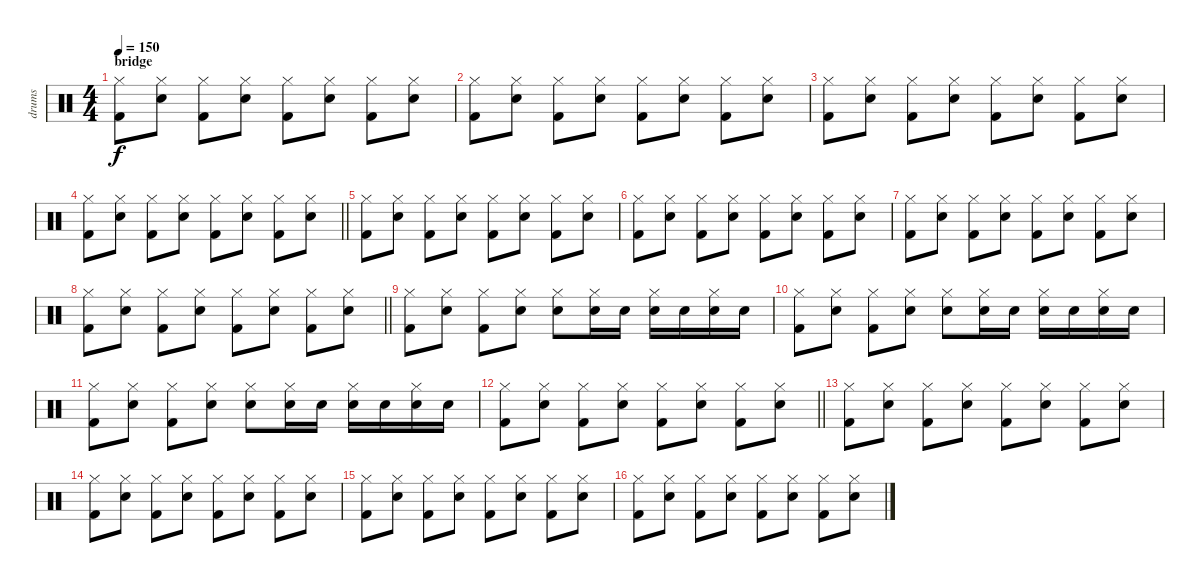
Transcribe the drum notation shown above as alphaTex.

\track ("drums" "drums") {instrument percussion}
\staff {score}
\articulation defaults
\ts (4 4)
\section ("" "bridge")
\tempo 150
\clef neutral
\ks c
("Hi-Hat (closed)" "Kick (hit) 2").8{dy f} ("Hi-Hat (closed)" "Snare (hit) 2").8 ("Hi-Hat (closed)" "Kick (hit) 2").8 ("Hi-Hat (closed)" "Snare (hit) 2").8 ("Hi-Hat (closed)" "Kick (hit) 2").8 ("Hi-Hat (closed)" "Snare (hit) 2").8 ("Hi-Hat (closed)" "Kick (hit) 2").8 ("Hi-Hat (closed)" "Snare (hit) 2").8 |
("Hi-Hat (closed)" "Kick (hit) 2").8 ("Hi-Hat (closed)" "Snare (hit) 2").8 ("Hi-Hat (closed)" "Kick (hit) 2").8 ("Hi-Hat (closed)" "Snare (hit) 2").8 ("Hi-Hat (closed)" "Kick (hit) 2").8 ("Hi-Hat (closed)" "Snare (hit) 2").8 ("Hi-Hat (closed)" "Kick (hit) 2").8 ("Hi-Hat (closed)" "Snare (hit) 2").8 |
("Hi-Hat (closed)" "Kick (hit) 2").8 ("Hi-Hat (closed)" "Snare (hit) 2").8 ("Hi-Hat (closed)" "Kick (hit) 2").8 ("Hi-Hat (closed)" "Snare (hit) 2").8 ("Hi-Hat (closed)" "Kick (hit) 2").8 ("Hi-Hat (closed)" "Snare (hit) 2").8 ("Hi-Hat (closed)" "Kick (hit) 2").8 ("Hi-Hat (closed)" "Snare (hit) 2").8 |
\barLineRight lightlight
("Hi-Hat (closed)" "Kick (hit) 2").8 ("Hi-Hat (closed)" "Snare (hit) 2").8 ("Hi-Hat (closed)" "Kick (hit) 2").8 ("Hi-Hat (closed)" "Snare (hit) 2").8 ("Hi-Hat (closed)" "Kick (hit) 2").8 ("Hi-Hat (closed)" "Snare (hit) 2").8 ("Hi-Hat (closed)" "Kick (hit) 2").8 ("Hi-Hat (closed)" "Snare (hit) 2").8 |
\section ("" "")
("Hi-Hat (closed)" "Kick (hit) 2").8 ("Hi-Hat (closed)" "Snare (hit) 2").8 ("Hi-Hat (closed)" "Kick (hit) 2").8 ("Hi-Hat (closed)" "Snare (hit) 2").8 ("Hi-Hat (closed)" "Kick (hit) 2").8 ("Hi-Hat (closed)" "Snare (hit) 2").8 ("Hi-Hat (closed)" "Kick (hit) 2").8 ("Hi-Hat (closed)" "Snare (hit) 2").8 |
("Hi-Hat (closed)" "Kick (hit) 2").8 ("Hi-Hat (closed)" "Snare (hit) 2").8 ("Hi-Hat (closed)" "Kick (hit) 2").8 ("Hi-Hat (closed)" "Snare (hit) 2").8 ("Hi-Hat (closed)" "Kick (hit) 2").8 ("Hi-Hat (closed)" "Snare (hit) 2").8 ("Hi-Hat (closed)" "Kick (hit) 2").8 ("Hi-Hat (closed)" "Snare (hit) 2").8 |
("Hi-Hat (closed)" "Kick (hit) 2").8 ("Hi-Hat (closed)" "Snare (hit) 2").8 ("Hi-Hat (closed)" "Kick (hit) 2").8 ("Hi-Hat (closed)" "Snare (hit) 2").8 ("Hi-Hat (closed)" "Kick (hit) 2").8 ("Hi-Hat (closed)" "Snare (hit) 2").8 ("Hi-Hat (closed)" "Kick (hit) 2").8 ("Hi-Hat (closed)" "Snare (hit) 2").8 |
\barLineRight lightlight
("Hi-Hat (closed)" "Kick (hit) 2").8 ("Hi-Hat (closed)" "Snare (hit) 2").8 ("Hi-Hat (closed)" "Kick (hit) 2").8 ("Hi-Hat (closed)" "Snare (hit) 2").8 ("Hi-Hat (closed)" "Kick (hit) 2").8 ("Hi-Hat (closed)" "Snare (hit) 2").8 ("Hi-Hat (closed)" "Kick (hit) 2").8 ("Hi-Hat (closed)" "Snare (hit) 2").8 |
\section ("" "")
("Hi-Hat (closed)" "Kick (hit) 2").8 ("Hi-Hat (closed)" "Snare (hit) 2").8 ("Hi-Hat (closed)" "Kick (hit) 2").8 ("Hi-Hat (closed)" "Snare (hit) 2").8 ("Hi-Hat (closed)" "Snare (hit) 2").8 ("Hi-Hat (closed)" "Snare (hit) 2").16 "Snare (hit) 2".16 ("Hi-Hat (closed)" "Snare (hit) 2").16 "Snare (hit) 2".16 ("Hi-Hat (closed)" "Snare (hit) 2").16 "Snare (hit) 2".16 |
("Hi-Hat (closed)" "Kick (hit) 2").8 ("Hi-Hat (closed)" "Snare (hit) 2").8 ("Hi-Hat (closed)" "Kick (hit) 2").8 ("Hi-Hat (closed)" "Snare (hit) 2").8 ("Hi-Hat (closed)" "Snare (hit) 2").8 ("Hi-Hat (closed)" "Snare (hit) 2").16 "Snare (hit) 2".16 ("Hi-Hat (closed)" "Snare (hit) 2").16 "Snare (hit) 2".16 ("Hi-Hat (closed)" "Snare (hit) 2").16 "Snare (hit) 2".16 |
("Hi-Hat (closed)" "Kick (hit) 2").8 ("Hi-Hat (closed)" "Snare (hit) 2").8 ("Hi-Hat (closed)" "Kick (hit) 2").8 ("Hi-Hat (closed)" "Snare (hit) 2").8 ("Hi-Hat (closed)" "Snare (hit) 2").8 ("Hi-Hat (closed)" "Snare (hit) 2").16 "Snare (hit) 2".16 ("Hi-Hat (closed)" "Snare (hit) 2").16 "Snare (hit) 2".16 ("Hi-Hat (closed)" "Snare (hit) 2").16 "Snare (hit) 2".16 |
\barLineRight lightlight
("Hi-Hat (closed)" "Kick (hit) 2").8 ("Hi-Hat (closed)" "Snare (hit) 2").8 ("Hi-Hat (closed)" "Kick (hit) 2").8 ("Hi-Hat (closed)" "Snare (hit) 2").8 ("Hi-Hat (closed)" "Kick (hit) 2").8 ("Hi-Hat (closed)" "Snare (hit) 2").8 ("Hi-Hat (closed)" "Kick (hit) 2").8 ("Hi-Hat (closed)" "Snare (hit) 2").8 |
\section ("" "")
("Hi-Hat (closed)" "Kick (hit) 2").8 ("Hi-Hat (closed)" "Snare (hit) 2").8 ("Hi-Hat (closed)" "Kick (hit) 2").8 ("Hi-Hat (closed)" "Snare (hit) 2").8 ("Hi-Hat (closed)" "Kick (hit) 2").8 ("Hi-Hat (closed)" "Snare (hit) 2").8 ("Hi-Hat (closed)" "Kick (hit) 2").8 ("Hi-Hat (closed)" "Snare (hit) 2").8 |
("Hi-Hat (closed)" "Kick (hit) 2").8 ("Hi-Hat (closed)" "Snare (hit) 2").8 ("Hi-Hat (closed)" "Kick (hit) 2").8 ("Hi-Hat (closed)" "Snare (hit) 2").8 ("Hi-Hat (closed)" "Kick (hit) 2").8 ("Hi-Hat (closed)" "Snare (hit) 2").8 ("Hi-Hat (closed)" "Kick (hit) 2").8 ("Hi-Hat (closed)" "Snare (hit) 2").8 |
("Hi-Hat (closed)" "Kick (hit) 2").8 ("Hi-Hat (closed)" "Snare (hit) 2").8 ("Hi-Hat (closed)" "Kick (hit) 2").8 ("Hi-Hat (closed)" "Snare (hit) 2").8 ("Hi-Hat (closed)" "Kick (hit) 2").8 ("Hi-Hat (closed)" "Snare (hit) 2").8 ("Hi-Hat (closed)" "Kick (hit) 2").8 ("Hi-Hat (closed)" "Snare (hit) 2").8 |
("Hi-Hat (closed)" "Kick (hit) 2").8 ("Hi-Hat (closed)" "Snare (hit) 2").8 ("Hi-Hat (closed)" "Kick (hit) 2").8 ("Hi-Hat (closed)" "Snare (hit) 2").8 ("Hi-Hat (closed)" "Kick (hit) 2").8 ("Hi-Hat (closed)" "Snare (hit) 2").8 ("Hi-Hat (closed)" "Kick (hit) 2").8 ("Hi-Hat (closed)" "Snare (hit) 2").8
